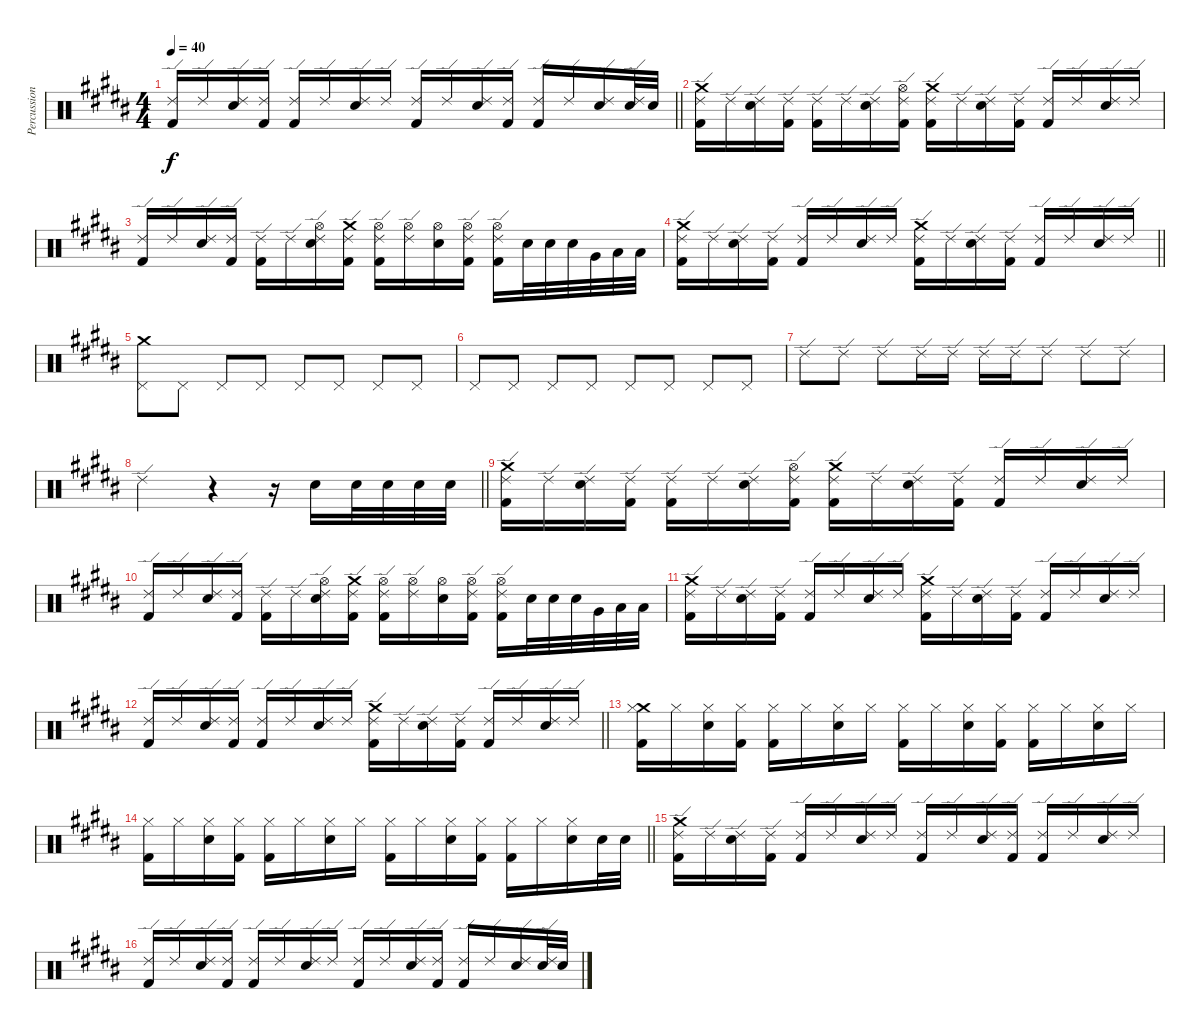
\track ("Percussion" "Percussion") {instrument percussion}
\staff {score}
\articulation defaults
\ts (4 4)
\tempo 40
\clef neutral
\barLineRight lightlight
\ks b
("Ride (edge) 2" "Kick (hit) 2").16{dy f} "Ride (edge) 2".16 ("Ride (edge) 2" "Snare (hit) 2").16 ("Ride (edge) 2" "Kick (hit) 2").16 ("Ride (edge) 2" "Kick (hit) 2").16 "Ride (edge) 2".16 ("Ride (edge) 2" "Snare (hit) 2").16 "Ride (edge) 2".16 ("Ride (edge) 2" "Kick (hit) 2").16 "Ride (edge) 2".16 ("Ride (edge) 2" "Snare (hit) 2").16 ("Ride (edge) 2" "Kick (hit) 2").16 ("Ride (edge) 2" "Kick (hit) 2").16 "Ride (edge) 2".16 ("Ride (edge) 2" "Snare (hit) 2").16 ("Ride (edge) 2" "Snare (hit) 2").32 "Snare (hit) 2".32 |
("Ride (edge) 2" "Crash medium (hit)" "Kick (hit) 2").16 "Ride (edge) 2".16 ("Ride (edge) 2" "Snare (hit) 2").16 ("Ride (edge) 2" "Kick (hit) 2").16 ("Ride (edge) 2" "Kick (hit) 2").16 "Ride (edge) 2".16 ("Ride (edge) 2" "Snare (hit) 2").16 ("Ride (edge) 2" "Hi-Hat (open)" "Kick (hit) 2").16 ("Ride (edge) 2" "Crash medium (hit)" "Kick (hit) 2").16 "Ride (edge) 2".16 ("Ride (edge) 2" "Snare (hit) 2").16 ("Ride (edge) 2" "Kick (hit) 2").16 ("Ride (edge) 2" "Kick (hit) 2").16 "Ride (edge) 2".16 ("Ride (edge) 2" "Snare (hit) 2").16 "Ride (edge) 2".16 |
("Ride (edge) 2" "Kick (hit) 2").16 "Ride (edge) 2".16 ("Ride (edge) 2" "Snare (hit) 2").16 ("Ride (edge) 2" "Kick (hit) 2").16 ("Ride (edge) 2" "Kick (hit) 2").16 "Ride (edge) 2".16 ("Ride (edge) 2" "Hi-Hat (open)" "Snare (hit) 2").16 ("Ride (edge) 2" "Crash medium (hit)" "Kick (hit) 2").16 ("Ride (edge) 2" "Hi-Hat (open)" "Kick (hit) 2").16 ("Ride (edge) 2" "Hi-Hat (open)").16 ("Hi-Hat (open)" "Snare (hit) 2").16 ("Ride (edge) 2" "Hi-Hat (open)" "Kick (hit) 2").16 ("Ride (edge) 2" "Hi-Hat (open)" "Kick (hit) 2").16 "Snare (hit) 2".32 "Snare (hit) 2".32 "Snare (hit) 2".32 "Very Low Tom (hit)".32 "Low Floor Tom (hit)".32 "Low Floor Tom (hit)".32 |
\barLineRight lightlight
("Ride (edge) 2" "Crash medium (hit)" "Kick (hit) 2").16 "Ride (edge) 2".16 ("Ride (edge) 2" "Snare (hit) 2").16 ("Ride (edge) 2" "Kick (hit) 2").16 ("Ride (edge) 2" "Kick (hit) 2").16 "Ride (edge) 2".16 ("Ride (edge) 2" "Snare (hit) 2").16 "Ride (edge) 2".16 ("Ride (edge) 2" "Crash medium (hit)" "Kick (hit) 2").16 "Ride (edge) 2".16 ("Ride (edge) 2" "Snare (hit) 2").16 ("Ride (edge) 2" "Kick (hit) 2").16 ("Ride (edge) 2" "Kick (hit) 2").16 "Ride (edge) 2".16 ("Ride (edge) 2" "Snare (hit) 2").16 "Ride (edge) 2".16 |
("Crash medium (hit)" "Pedal Hi-Hat (hit)").8 "Pedal Hi-Hat (hit)".8 "Pedal Hi-Hat (hit)".8 "Pedal Hi-Hat (hit)".8 "Pedal Hi-Hat (hit)".8 "Pedal Hi-Hat (hit)".8 "Pedal Hi-Hat (hit)".8 "Pedal Hi-Hat (hit)".8 |
"Pedal Hi-Hat (hit)".8 "Pedal Hi-Hat (hit)".8 "Pedal Hi-Hat (hit)".8 "Pedal Hi-Hat (hit)".8 "Pedal Hi-Hat (hit)".8 "Pedal Hi-Hat (hit)".8 "Pedal Hi-Hat (hit)".8 "Pedal Hi-Hat (hit)".8 |
"Ride (edge) 2".8 "Ride (edge) 2".8 "Ride (edge) 2".8 "Ride (edge) 2".16 "Ride (edge) 2".16 "Ride (edge) 2".16 "Ride (edge) 2".16 "Ride (edge) 2".8 "Ride (edge) 2".8 "Ride (edge) 2".8 |
\barLineRight lightlight "Ride (edge) 2".2
r.4 r.16 "Snare (hit) 2".16 "Snare (hit) 2".32 "Snare (hit) 2".32 "Snare (hit) 2".32 "Snare (hit) 2".32 |
("Ride (edge) 2" "Crash medium (hit)" "Kick (hit) 2").16 "Ride (edge) 2".16 ("Ride (edge) 2" "Snare (hit) 2").16 ("Ride (edge) 2" "Kick (hit) 2").16 ("Ride (edge) 2" "Kick (hit) 2").16 "Ride (edge) 2".16 ("Ride (edge) 2" "Snare (hit) 2").16 ("Ride (edge) 2" "Hi-Hat (open)" "Kick (hit) 2").16 ("Ride (edge) 2" "Crash medium (hit)" "Kick (hit) 2").16 "Ride (edge) 2".16 ("Ride (edge) 2" "Snare (hit) 2").16 ("Ride (edge) 2" "Kick (hit) 2").16 ("Ride (edge) 2" "Kick (hit) 2").16 "Ride (edge) 2".16 ("Ride (edge) 2" "Snare (hit) 2").16 "Ride (edge) 2".16 |
("Ride (edge) 2" "Kick (hit) 2").16 "Ride (edge) 2".16 ("Ride (edge) 2" "Snare (hit) 2").16 ("Ride (edge) 2" "Kick (hit) 2").16 ("Ride (edge) 2" "Kick (hit) 2").16 "Ride (edge) 2".16 ("Ride (edge) 2" "Hi-Hat (open)" "Snare (hit) 2").16 ("Ride (edge) 2" "Crash medium (hit)" "Kick (hit) 2").16 ("Ride (edge) 2" "Hi-Hat (open)" "Kick (hit) 2").16 ("Ride (edge) 2" "Hi-Hat (open)").16 ("Hi-Hat (open)" "Snare (hit) 2").16 ("Ride (edge) 2" "Hi-Hat (open)" "Kick (hit) 2").16 ("Ride (edge) 2" "Hi-Hat (open)" "Kick (hit) 2").16 "Snare (hit) 2".32 "Snare (hit) 2".32 "Snare (hit) 2".32 "Very Low Tom (hit)".32 "Low Floor Tom (hit)".32 "Low Floor Tom (hit)".32 |
("Ride (edge) 2" "Crash medium (hit)" "Kick (hit) 2").16 "Ride (edge) 2".16 ("Ride (edge) 2" "Snare (hit) 2").16 ("Ride (edge) 2" "Kick (hit) 2").16 ("Ride (edge) 2" "Kick (hit) 2").16 "Ride (edge) 2".16 ("Ride (edge) 2" "Snare (hit) 2").16 "Ride (edge) 2".16 ("Ride (edge) 2" "Crash medium (hit)" "Kick (hit) 2").16 "Ride (edge) 2".16 ("Ride (edge) 2" "Snare (hit) 2").16 ("Ride (edge) 2" "Kick (hit) 2").16 ("Ride (edge) 2" "Kick (hit) 2").16 "Ride (edge) 2".16 ("Ride (edge) 2" "Snare (hit) 2").16 "Ride (edge) 2".16 |
\barLineRight lightlight
("Ride (edge) 2" "Kick (hit) 2").16 "Ride (edge) 2".16 ("Ride (edge) 2" "Snare (hit) 2").16 ("Ride (edge) 2" "Kick (hit) 2").16 ("Ride (edge) 2" "Kick (hit) 2").16 "Ride (edge) 2".16 ("Ride (edge) 2" "Snare (hit) 2").16 "Ride (edge) 2".16 ("Ride (edge) 2" "Crash medium (hit)" "Kick (hit) 2").16 "Ride (edge) 2".16 ("Ride (edge) 2" "Snare (hit) 2").16 ("Ride (edge) 2" "Kick (hit) 2").16 ("Ride (edge) 2" "Kick (hit) 2").16 "Ride (edge) 2".16 ("Ride (edge) 2" "Snare (hit) 2").16 "Ride (edge) 2".16 |
("Crash medium (hit)" "Hi-Hat (closed)" "Kick (hit) 2").16 "Hi-Hat (closed)".16 ("Hi-Hat (closed)" "Snare (hit) 2").16 ("Hi-Hat (closed)" "Kick (hit) 2").16 ("Hi-Hat (closed)" "Kick (hit) 2").16 "Hi-Hat (closed)".16 ("Hi-Hat (closed)" "Snare (hit) 2").16 "Hi-Hat (closed)".16 ("Hi-Hat (closed)" "Kick (hit) 2").16 "Hi-Hat (closed)".16 ("Hi-Hat (closed)" "Snare (hit) 2").16 ("Hi-Hat (closed)" "Kick (hit) 2").16 ("Hi-Hat (closed)" "Kick (hit) 2").16 "Hi-Hat (closed)".16 ("Hi-Hat (closed)" "Snare (hit) 2").16 "Hi-Hat (closed)".16 |
\barLineRight lightlight
("Hi-Hat (closed)" "Kick (hit) 2").16 "Hi-Hat (closed)".16 ("Hi-Hat (closed)" "Snare (hit) 2").16 ("Hi-Hat (closed)" "Kick (hit) 2").16 ("Hi-Hat (closed)" "Kick (hit) 2").16 "Hi-Hat (closed)".16 ("Hi-Hat (closed)" "Snare (hit) 2").16 "Hi-Hat (closed)".16 ("Hi-Hat (closed)" "Kick (hit) 2").16 "Hi-Hat (closed)".16 ("Hi-Hat (closed)" "Snare (hit) 2").16 ("Hi-Hat (closed)" "Kick (hit) 2").16 ("Hi-Hat (closed)" "Kick (hit) 2").16 "Hi-Hat (closed)".16 ("Hi-Hat (closed)" "Snare (hit) 2").16 "Snare (hit) 2".32 "Snare (hit) 2".32 |
("Ride (edge) 2" "Crash medium (hit)" "Kick (hit) 2").16 "Ride (edge) 2".16 ("Ride (edge) 2" "Snare (hit) 2").16 ("Ride (edge) 2" "Kick (hit) 2").16 ("Ride (edge) 2" "Kick (hit) 2").16 "Ride (edge) 2".16 ("Ride (edge) 2" "Snare (hit) 2").16 "Ride (edge) 2".16 ("Ride (edge) 2" "Kick (hit) 2").16 "Ride (edge) 2".16 ("Ride (edge) 2" "Snare (hit) 2").16 ("Ride (edge) 2" "Kick (hit) 2").16 ("Ride (edge) 2" "Kick (hit) 2").16 "Ride (edge) 2".16 ("Ride (edge) 2" "Snare (hit) 2").16 "Ride (edge) 2".16 |
("Ride (edge) 2" "Kick (hit) 2").16 "Ride (edge) 2".16 ("Ride (edge) 2" "Snare (hit) 2").16 ("Ride (edge) 2" "Kick (hit) 2").16 ("Ride (edge) 2" "Kick (hit) 2").16 "Ride (edge) 2".16 ("Ride (edge) 2" "Snare (hit) 2").16 "Ride (edge) 2".16 ("Ride (edge) 2" "Kick (hit) 2").16 "Ride (edge) 2".16 ("Ride (edge) 2" "Snare (hit) 2").16 ("Ride (edge) 2" "Kick (hit) 2").16 ("Ride (edge) 2" "Kick (hit) 2").16 "Ride (edge) 2".16 ("Ride (edge) 2" "Snare (hit) 2").16 ("Ride (edge) 2" "Snare (hit) 2").32 "Snare (hit) 2".32
